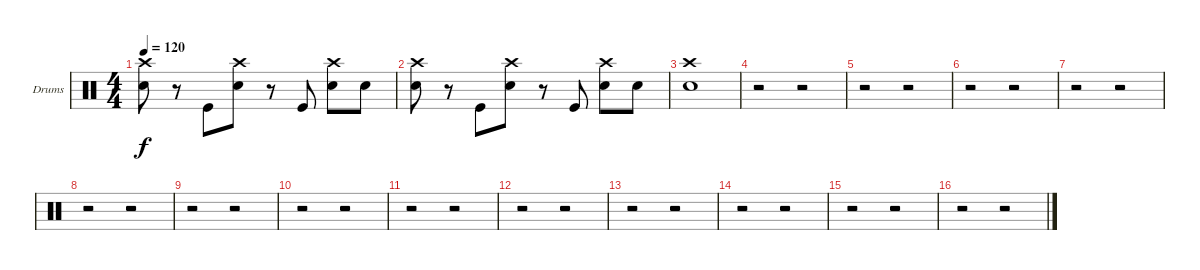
\bracketExtendMode groupsimilarinstruments
\firstSystemTrackNameOrientation horizontal
\otherSystemsTrackNameOrientation horizontal
\track ("Drumkit" "Drums") {instrument percussion}
\staff {score}
\articulation defaults
\ts (4 4)
\tempo 120
\clef neutral
\ks c
("Crash high (hit)" "Snare (hit) 2").8{dy f} r.8 "Kick (hit)".8 ("Crash high (hit)" "Snare (hit) 2").8 r.8 "Kick (hit)".8 ("Crash high (hit)" "Snare (hit) 2").8 "Snare (hit) 2".8 |
("Crash high (hit)" "Snare (hit) 2").8 r.8 "Kick (hit)".8 ("Crash high (hit)" "Snare (hit) 2").8 r.8 "Kick (hit)".8 ("Crash high (hit)" "Snare (hit) 2").8 "Snare (hit) 2".8 |
("Crash high (hit)" "Snare (hit) 2").1 |
r.2 r.2 |
r.2 r.2 |
r.2 r.2 |
r.2 r.2 |
r.2 r.2 |
r.2 r.2 |
r.2 r.2 |
r.2 r.2 |
r.2 r.2 |
r.2 r.2 |
r.2 r.2 |
r.2 r.2 |
r.2 r.2
